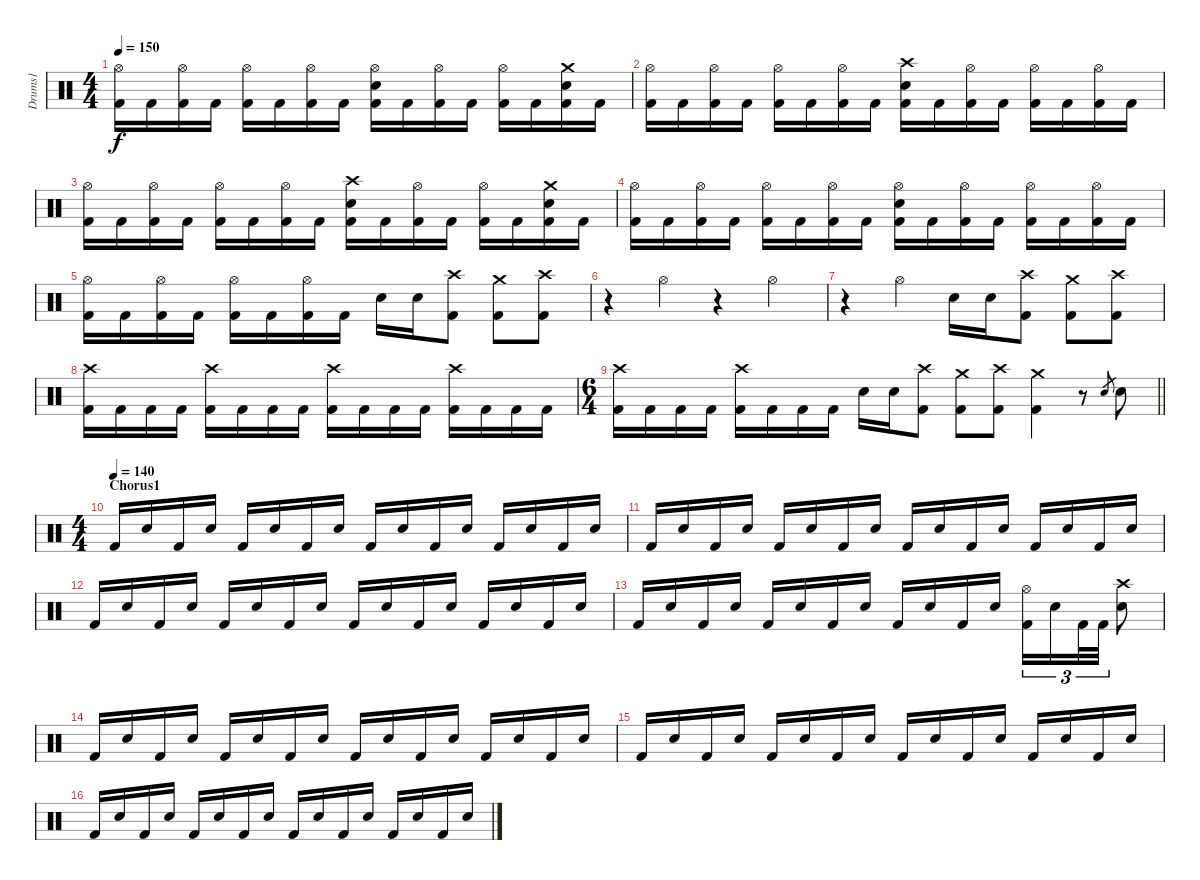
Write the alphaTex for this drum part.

\track ("Drums1" "Drums1") {instrument percussion}
\staff {score}
\articulation defaults
\ts (4 4)
\tempo 150
\clef neutral
\ks c
("Hi-Hat (open)" "Kick (hit) 2").16{dy f} "Kick (hit) 2".16 ("Hi-Hat (open)" "Kick (hit) 2").16 "Kick (hit) 2".16 ("Hi-Hat (open)" "Kick (hit) 2").16 "Kick (hit) 2".16 ("Hi-Hat (open)" "Kick (hit) 2").16 "Kick (hit) 2".16 ("Hi-Hat (open)" "Electric Snare (hit)" "Kick (hit) 2").16 "Kick (hit) 2".16 ("Hi-Hat (open)" "Kick (hit) 2").16 "Kick (hit) 2".16 ("Hi-Hat (open)" "Kick (hit) 2").16 "Kick (hit) 2".16 ("Crash medium (hit)" "Electric Snare (hit)" "Kick (hit) 2").16 "Kick (hit) 2".16 |
("Hi-Hat (open)" "Kick (hit) 2").16 "Kick (hit) 2".16 ("Hi-Hat (open)" "Kick (hit) 2").16 "Kick (hit) 2".16 ("Hi-Hat (open)" "Kick (hit) 2").16 "Kick (hit) 2".16 ("Hi-Hat (open)" "Kick (hit) 2").16 "Kick (hit) 2".16 ("Crash high (hit)" "Electric Snare (hit)" "Kick (hit) 2").16 "Kick (hit) 2".16 ("Hi-Hat (open)" "Kick (hit) 2").16 "Kick (hit) 2".16 ("Hi-Hat (open)" "Kick (hit) 2").16 "Kick (hit) 2".16 ("Hi-Hat (open)" "Kick (hit) 2").16 "Kick (hit) 2".16 |
("Hi-Hat (open)" "Kick (hit) 2").16 "Kick (hit) 2".16 ("Hi-Hat (open)" "Kick (hit) 2").16 "Kick (hit) 2".16 ("Hi-Hat (open)" "Kick (hit) 2").16 "Kick (hit) 2".16 ("Hi-Hat (open)" "Kick (hit) 2").16 "Kick (hit) 2".16 ("Crash high (hit)" "Electric Snare (hit)" "Kick (hit) 2").16 "Kick (hit) 2".16 ("Hi-Hat (open)" "Kick (hit) 2").16 "Kick (hit) 2".16 ("Hi-Hat (open)" "Kick (hit) 2").16 "Kick (hit) 2".16 ("Crash medium (hit)" "Electric Snare (hit)" "Kick (hit) 2").16 "Kick (hit) 2".16 |
("Hi-Hat (open)" "Kick (hit) 2").16 "Kick (hit) 2".16 ("Hi-Hat (open)" "Kick (hit) 2").16 "Kick (hit) 2".16 ("Hi-Hat (open)" "Kick (hit) 2").16 "Kick (hit) 2".16 ("Hi-Hat (open)" "Kick (hit) 2").16 "Kick (hit) 2".16 ("Hi-Hat (open)" "Electric Snare (hit)" "Kick (hit) 2").16 "Kick (hit) 2".16 ("Hi-Hat (open)" "Kick (hit) 2").16 "Kick (hit) 2".16 ("Hi-Hat (open)" "Kick (hit) 2").16 "Kick (hit) 2".16 ("Hi-Hat (open)" "Kick (hit) 2").16 "Kick (hit) 2".16 |
("Hi-Hat (open)" "Kick (hit) 2").16 "Kick (hit) 2".16 ("Hi-Hat (open)" "Kick (hit) 2").16 "Kick (hit) 2".16 ("Hi-Hat (open)" "Kick (hit) 2").16 "Kick (hit) 2".16 ("Hi-Hat (open)" "Kick (hit) 2").16 "Kick (hit) 2".16 "Electric Snare (hit)".16 "Electric Snare (hit)".16 ("Crash high (hit)" "Kick (hit) 2").8 ("Crash medium (hit)" "Kick (hit) 2").8 ("Crash high (hit)" "Kick (hit) 2").8 |
r.4 "Hi-Hat (open)".4 r.4 "Hi-Hat (open)".4 |
r.4 "Hi-Hat (open)".4 "Electric Snare (hit)".16 "Electric Snare (hit)".16 ("Crash high (hit)" "Kick (hit) 2").8 ("Crash medium (hit)" "Kick (hit) 2").8 ("Crash high (hit)" "Kick (hit) 2").8 |
("Crash high (hit)" "Kick (hit) 2").16 "Kick (hit) 2".16 "Kick (hit) 2".16 "Kick (hit) 2".16 ("Crash high (hit)" "Kick (hit) 2").16 "Kick (hit) 2".16 "Kick (hit) 2".16 "Kick (hit) 2".16 ("Crash high (hit)" "Kick (hit) 2").16 "Kick (hit) 2".16 "Kick (hit) 2".16 "Kick (hit) 2".16 ("Crash high (hit)" "Kick (hit) 2").16 "Kick (hit) 2".16 "Kick (hit) 2".16 "Kick (hit) 2".16 |
\ts (6 4)
\barLineRight lightlight
("Crash high (hit)" "Kick (hit) 2").16 "Kick (hit) 2".16 "Kick (hit) 2".16 "Kick (hit) 2".16 ("Crash high (hit)" "Kick (hit) 2").16 "Kick (hit) 2".16 "Kick (hit) 2".16 "Kick (hit) 2".16 "Electric Snare (hit)".16 "Electric Snare (hit)".16 ("Crash high (hit)" "Kick (hit) 2").8 ("Crash medium (hit)" "Kick (hit) 2").8 ("Crash high (hit)" "Kick (hit) 2").8 ("Crash medium (hit)" "Kick (hit) 2").4 r.8 "Electric Snare (hit)".8{gr} "Electric Snare (hit)".8 |
\ts (4 4)
\section ("" "Chorus1")
\tempo (140)
"Kick (hit) 2".16 "Electric Snare (hit)".16 "Kick (hit) 2".16 "Electric Snare (hit)".16 "Kick (hit) 2".16 "Electric Snare (hit)".16 "Kick (hit) 2".16 "Electric Snare (hit)".16 "Kick (hit) 2".16 "Electric Snare (hit)".16 "Kick (hit) 2".16 "Electric Snare (hit)".16 "Kick (hit) 2".16 "Electric Snare (hit)".16 "Kick (hit) 2".16 "Electric Snare (hit)".16 |
"Kick (hit) 2".16 "Electric Snare (hit)".16 "Kick (hit) 2".16 "Electric Snare (hit)".16 "Kick (hit) 2".16 "Electric Snare (hit)".16 "Kick (hit) 2".16 "Electric Snare (hit)".16 "Kick (hit) 2".16 "Electric Snare (hit)".16 "Kick (hit) 2".16 "Electric Snare (hit)".16 "Kick (hit) 2".16 "Electric Snare (hit)".16 "Kick (hit) 2".16 "Electric Snare (hit)".16 |
"Kick (hit) 2".16 "Electric Snare (hit)".16 "Kick (hit) 2".16 "Electric Snare (hit)".16 "Kick (hit) 2".16 "Electric Snare (hit)".16 "Kick (hit) 2".16 "Electric Snare (hit)".16 "Kick (hit) 2".16 "Electric Snare (hit)".16 "Kick (hit) 2".16 "Electric Snare (hit)".16 "Kick (hit) 2".16 "Electric Snare (hit)".16 "Kick (hit) 2".16 "Electric Snare (hit)".16 |
"Kick (hit) 2".16 "Electric Snare (hit)".16 "Kick (hit) 2".16 "Electric Snare (hit)".16 "Kick (hit) 2".16 "Electric Snare (hit)".16 "Kick (hit) 2".16 "Electric Snare (hit)".16 "Kick (hit) 2".16 "Electric Snare (hit)".16 "Kick (hit) 2".16 "Electric Snare (hit)".16 ("Hi-Hat (open)" "Kick (hit) 2").16{tu (3 2)} "Electric Snare (hit)".16{tu (3 2)} "Kick (hit) 2".32{tu (3 2)} "Kick (hit) 2".32{tu (3 2)} ("Crash high (hit)" "Electric Snare (hit)").8 |
"Kick (hit) 2".16 "Electric Snare (hit)".16 "Kick (hit) 2".16 "Electric Snare (hit)".16 "Kick (hit) 2".16 "Electric Snare (hit)".16 "Kick (hit) 2".16 "Electric Snare (hit)".16 "Kick (hit) 2".16 "Electric Snare (hit)".16 "Kick (hit) 2".16 "Electric Snare (hit)".16 "Kick (hit) 2".16 "Electric Snare (hit)".16 "Kick (hit) 2".16 "Electric Snare (hit)".16 |
"Kick (hit) 2".16 "Electric Snare (hit)".16 "Kick (hit) 2".16 "Electric Snare (hit)".16 "Kick (hit) 2".16 "Electric Snare (hit)".16 "Kick (hit) 2".16 "Electric Snare (hit)".16 "Kick (hit) 2".16 "Electric Snare (hit)".16 "Kick (hit) 2".16 "Electric Snare (hit)".16 "Kick (hit) 2".16 "Electric Snare (hit)".16 "Kick (hit) 2".16 "Electric Snare (hit)".16 |
"Kick (hit) 2".16 "Electric Snare (hit)".16 "Kick (hit) 2".16 "Electric Snare (hit)".16 "Kick (hit) 2".16 "Electric Snare (hit)".16 "Kick (hit) 2".16 "Electric Snare (hit)".16 "Kick (hit) 2".16 "Electric Snare (hit)".16 "Kick (hit) 2".16 "Electric Snare (hit)".16 "Kick (hit) 2".16 "Electric Snare (hit)".16 "Kick (hit) 2".16 "Electric Snare (hit)".16
